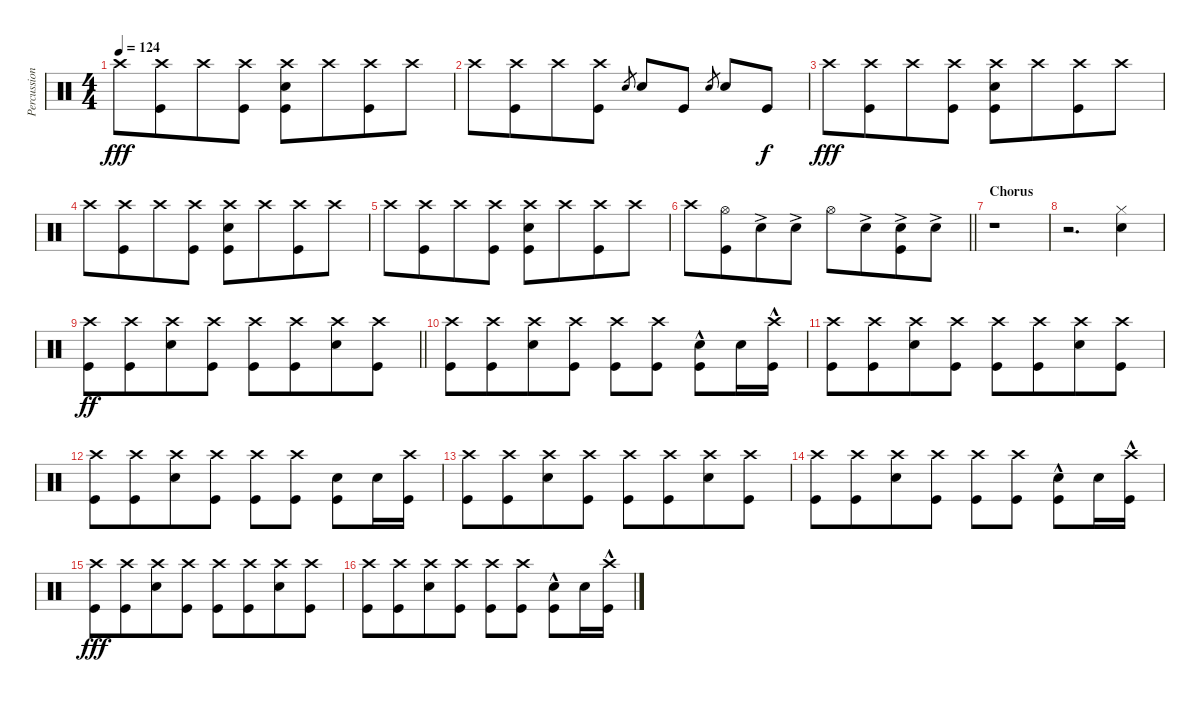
\track ("Percussion" "Percussion") {instrument percussion}
\staff {score}
\articulation defaults
\ts (4 4)
\tempo 124
\clef neutral
\ks c "Crash high (hit)".8{dy fff}
("Crash high (hit)" "Kick (hit)").8{beam merge} "Crash high (hit)".8 ("Crash high (hit)" "Kick (hit)").8 ("Crash high (hit)" "Snare (hit) 2" "Kick (hit)").8 "Crash high (hit)".8{beam merge} ("Crash high (hit)" "Kick (hit)").8 "Crash high (hit)".8 |
"Crash high (hit)".8 ("Crash high (hit)" "Kick (hit)").8{beam merge} "Crash high (hit)".8 ("Crash high (hit)" "Kick (hit)").8 "Snare (hit) 2".8{gr} "Snare (hit) 2".8 "Kick (hit)".8 "Snare (hit) 2".8{gr} "Snare (hit) 2".8 "Kick (hit)".8{dy f} |
"Crash high (hit)".8{dy fff} ("Crash high (hit)" "Kick (hit)").8{beam merge} "Crash high (hit)".8 ("Crash high (hit)" "Kick (hit)").8 ("Crash high (hit)" "Snare (hit) 2" "Kick (hit)").8 "Crash high (hit)".8{beam merge} ("Crash high (hit)" "Kick (hit)").8 "Crash high (hit)".8 |
"Crash high (hit)".8 ("Crash high (hit)" "Kick (hit)").8{beam merge} "Crash high (hit)".8 ("Crash high (hit)" "Kick (hit)").8 ("Crash high (hit)" "Snare (hit) 2" "Kick (hit)").8 "Crash high (hit)".8{beam merge} ("Crash high (hit)" "Kick (hit)").8 "Crash high (hit)".8 |
"Crash high (hit)".8 ("Crash high (hit)" "Kick (hit)").8{beam merge} "Crash high (hit)".8 ("Crash high (hit)" "Kick (hit)").8 ("Crash high (hit)" "Snare (hit) 2" "Kick (hit)").8 "Crash high (hit)".8{beam merge} ("Crash high (hit)" "Kick (hit)").8 "Crash high (hit)".8 |
\barLineRight lightlight "Crash high (hit)".8
("Hi-Hat (open)" "Kick (hit)").8{beam merge} "Snare (hit) 2"{ac}.8 "Snare (hit) 2"{ac}.8 "Hi-Hat (open)".8 "Snare (hit) 2"{ac}.8{beam merge} ("Snare (hit) 2"{ac} "Kick (hit)").8 "Snare (hit) 2"{ac}.8 |
\section ("" "Chorus")
r.1 |
r.2{d} ("Hi-Hat (closed)" "Snare (hit) 2").4 |
\barLineRight lightlight
("Crash high (hit)" "Kick (hit)").8{dy ff} ("Crash high (hit)" "Kick (hit)").8{beam merge} ("Crash high (hit)" "Snare (hit) 2").8 ("Crash high (hit)" "Kick (hit)").8 ("Crash high (hit)" "Kick (hit)").8 ("Crash high (hit)" "Kick (hit)").8{beam merge} ("Crash high (hit)" "Snare (hit) 2").8 ("Crash high (hit)" "Kick (hit)").8 |
\section ("" "")
("Crash high (hit)" "Kick (hit)").8 ("Crash high (hit)" "Kick (hit)").8{beam merge} ("Crash high (hit)" "Snare (hit) 2").8 ("Crash high (hit)" "Kick (hit)").8 ("Crash high (hit)" "Kick (hit)").8 ("Crash high (hit)" "Kick (hit)").8 ("Snare (hit) 2" "Kick (hit)"{hac}).8 "Snare (hit) 2".16 ("Crash high (hit)" "Kick (hit)"{hac}).16 |
("Crash high (hit)" "Kick (hit)").8 ("Crash high (hit)" "Kick (hit)").8{beam merge} ("Crash high (hit)" "Snare (hit) 2").8 ("Crash high (hit)" "Kick (hit)").8 ("Crash high (hit)" "Kick (hit)").8 ("Crash high (hit)" "Kick (hit)").8{beam merge} ("Crash high (hit)" "Snare (hit) 2").8 ("Crash high (hit)" "Kick (hit)").8 |
("Crash high (hit)" "Kick (hit)").8 ("Crash high (hit)" "Kick (hit)").8{beam merge} ("Crash high (hit)" "Snare (hit) 2").8 ("Crash high (hit)" "Kick (hit)").8 ("Crash high (hit)" "Kick (hit)").8 ("Crash high (hit)" "Kick (hit)").8 ("Snare (hit) 2" "Kick (hit)").8 "Snare (hit) 2".16 ("Crash high (hit)" "Kick (hit)").16 |
("Crash high (hit)" "Kick (hit)").8 ("Crash high (hit)" "Kick (hit)").8{beam merge} ("Crash high (hit)" "Snare (hit) 2").8 ("Crash high (hit)" "Kick (hit)").8 ("Crash high (hit)" "Kick (hit)").8 ("Crash high (hit)" "Kick (hit)").8{beam merge} ("Crash high (hit)" "Snare (hit) 2").8 ("Crash high (hit)" "Kick (hit)").8 |
("Crash high (hit)" "Kick (hit)").8 ("Crash high (hit)" "Kick (hit)").8{beam merge} ("Crash high (hit)" "Snare (hit) 2").8 ("Crash high (hit)" "Kick (hit)").8 ("Crash high (hit)" "Kick (hit)").8 ("Crash high (hit)" "Kick (hit)").8 ("Snare (hit) 2" "Kick (hit)"{hac}).8 "Snare (hit) 2".16 ("Crash high (hit)" "Kick (hit)"{hac}).16 |
("Crash high (hit)" "Kick (hit)").8{dy fff} ("Crash high (hit)" "Kick (hit)").8{beam merge} ("Crash high (hit)" "Snare (hit) 2").8 ("Crash high (hit)" "Kick (hit)").8 ("Crash high (hit)" "Kick (hit)").8 ("Crash high (hit)" "Kick (hit)").8{beam merge} ("Crash high (hit)" "Snare (hit) 2").8 ("Crash high (hit)" "Kick (hit)").8 |
("Crash high (hit)" "Kick (hit)").8 ("Crash high (hit)" "Kick (hit)").8{beam merge} ("Crash high (hit)" "Snare (hit) 2").8 ("Crash high (hit)" "Kick (hit)").8 ("Crash high (hit)" "Kick (hit)").8 ("Crash high (hit)" "Kick (hit)").8 ("Snare (hit) 2" "Kick (hit)"{hac}).8 "Snare (hit) 2".16 ("Crash high (hit)" "Kick (hit)"{hac}).16
